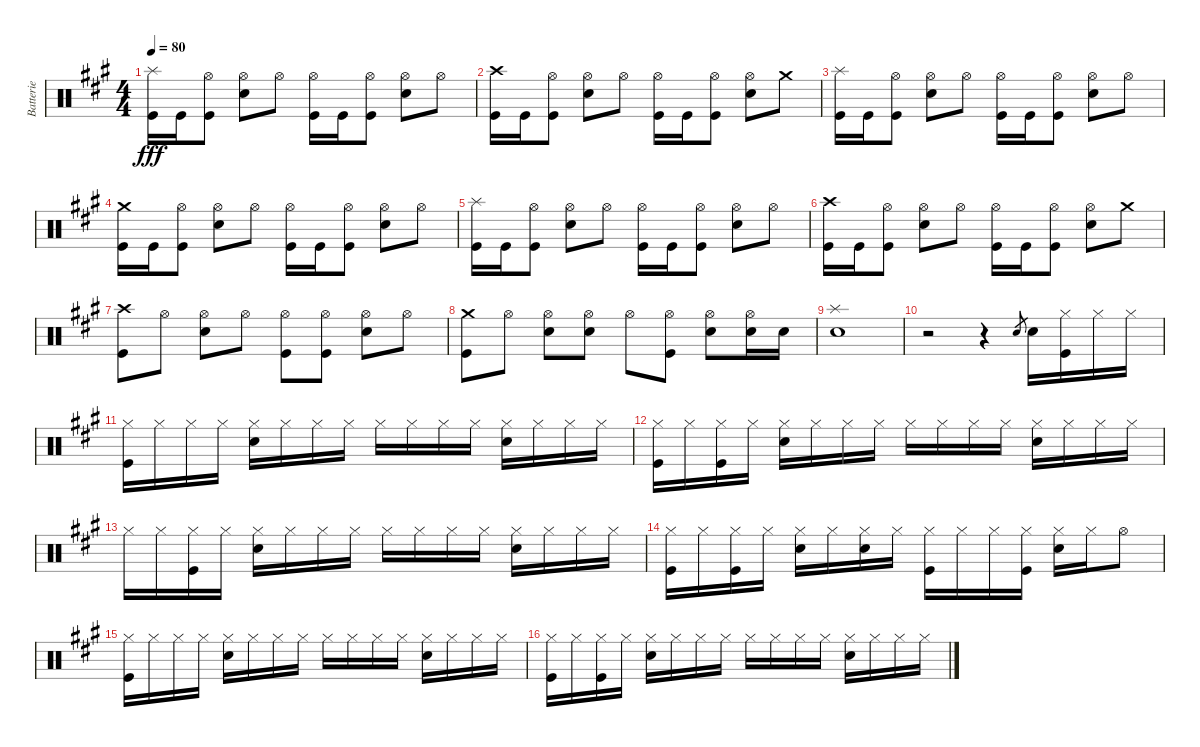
\track ("Batterie" "Batterie") {instrument percussion}
\staff {score}
\articulation defaults
\ts (4 4)
\tempo 80
\clef neutral
\ks a
("Splash (hit)" "Kick (hit)").16{dy fff} "Kick (hit)".16 ("Hi-Hat (open)" "Kick (hit)").8 ("Hi-Hat (open)" "Snare (hit) 2").8 "Hi-Hat (open)".8 ("Hi-Hat (open)" "Kick (hit)").16 "Kick (hit)".16 ("Hi-Hat (open)" "Kick (hit)").8 ("Hi-Hat (open)" "Snare (hit) 2").8 "Hi-Hat (open)".8 |
("Crash high (hit)" "Kick (hit)").16 "Kick (hit)".16 ("Hi-Hat (open)" "Kick (hit)").8 ("Hi-Hat (open)" "Snare (hit) 2").8 "Hi-Hat (open)".8 ("Hi-Hat (open)" "Kick (hit)").16 "Kick (hit)".16 ("Hi-Hat (open)" "Kick (hit)").8 ("Hi-Hat (open)" "Snare (hit) 2").8 "Crash medium (hit)".8 |
("Splash (hit)" "Kick (hit)").16 "Kick (hit)".16 ("Hi-Hat (open)" "Kick (hit)").8 ("Hi-Hat (open)" "Snare (hit) 2").8 "Hi-Hat (open)".8 ("Hi-Hat (open)" "Kick (hit)").16 "Kick (hit)".16 ("Hi-Hat (open)" "Kick (hit)").8 ("Hi-Hat (open)" "Snare (hit) 2").8 "Hi-Hat (open)".8 |
("Crash medium (hit)" "Kick (hit)").16 "Kick (hit)".16 ("Hi-Hat (open)" "Kick (hit)").8 ("Hi-Hat (open)" "Snare (hit) 2").8 "Hi-Hat (open)".8 ("Hi-Hat (open)" "Kick (hit)").16 "Kick (hit)".16 ("Hi-Hat (open)" "Kick (hit)").8 ("Hi-Hat (open)" "Snare (hit) 2").8 "Hi-Hat (open)".8 |
("Splash (hit)" "Kick (hit)").16 "Kick (hit)".16 ("Hi-Hat (open)" "Kick (hit)").8 ("Hi-Hat (open)" "Snare (hit) 2").8 "Hi-Hat (open)".8 ("Hi-Hat (open)" "Kick (hit)").16 "Kick (hit)".16 ("Hi-Hat (open)" "Kick (hit)").8 ("Hi-Hat (open)" "Snare (hit) 2").8 "Hi-Hat (open)".8 |
("Crash high (hit)" "Kick (hit)").16 "Kick (hit)".16 ("Hi-Hat (open)" "Kick (hit)").8 ("Hi-Hat (open)" "Snare (hit) 2").8 "Hi-Hat (open)".8 ("Hi-Hat (open)" "Kick (hit)").16 "Kick (hit)".16 ("Hi-Hat (open)" "Kick (hit)").8 ("Hi-Hat (open)" "Snare (hit) 2").8 "Crash medium (hit)".8 |
("Crash high (hit)" "Kick (hit)").8 "Hi-Hat (open)".8 ("Hi-Hat (open)" "Snare (hit) 2").8 "Hi-Hat (open)".8 ("Hi-Hat (open)" "Kick (hit)").8 ("Hi-Hat (open)" "Kick (hit)").8 ("Hi-Hat (open)" "Snare (hit) 2").8 "Hi-Hat (open)".8 |
("Crash medium (hit)" "Kick (hit)").8 "Hi-Hat (open)".8 ("Hi-Hat (open)" "Snare (hit) 2").8 ("Hi-Hat (open)" "Snare (hit) 2").8 "Hi-Hat (open)".8 ("Hi-Hat (open)" "Kick (hit)").8 ("Hi-Hat (open)" "Snare (hit) 2").8 ("Hi-Hat (open)" "Snare (hit) 2").16 "Snare (hit) 2".16 |
("Splash (hit)" "Snare (hit) 2").1 |
r.2 r.4 "Snare (hit) 2".8{gr} "Snare (hit) 2".16 ("Hi-Hat (closed)" "Kick (hit)").16 "Hi-Hat (closed)".16 "Hi-Hat (closed)".16 |
("Hi-Hat (closed)" "Kick (hit)").16 "Hi-Hat (closed)".16 "Hi-Hat (closed)".16 "Hi-Hat (closed)".16 ("Hi-Hat (closed)" "Snare (hit) 2").16 "Hi-Hat (closed)".16 "Hi-Hat (closed)".16 "Hi-Hat (closed)".16 "Hi-Hat (closed)".16 "Hi-Hat (closed)".16 "Hi-Hat (closed)".16 "Hi-Hat (closed)".16 ("Hi-Hat (closed)" "Snare (hit) 2").16 "Hi-Hat (closed)".16 "Hi-Hat (closed)".16 "Hi-Hat (closed)".16 |
("Hi-Hat (closed)" "Kick (hit)").16 "Hi-Hat (closed)".16 ("Hi-Hat (closed)" "Kick (hit)").16 "Hi-Hat (closed)".16 ("Hi-Hat (closed)" "Snare (hit) 2").16 "Hi-Hat (closed)".16 "Hi-Hat (closed)".16 "Hi-Hat (closed)".16 "Hi-Hat (closed)".16 "Hi-Hat (closed)".16 "Hi-Hat (closed)".16 "Hi-Hat (closed)".16 ("Hi-Hat (closed)" "Snare (hit) 2").16 "Hi-Hat (closed)".16 "Hi-Hat (closed)".16 "Hi-Hat (closed)".16 |
"Hi-Hat (closed)".16 "Hi-Hat (closed)".16 ("Hi-Hat (closed)" "Kick (hit)").16 "Hi-Hat (closed)".16 ("Hi-Hat (closed)" "Snare (hit) 2").16 "Hi-Hat (closed)".16 "Hi-Hat (closed)".16 "Hi-Hat (closed)".16 "Hi-Hat (closed)".16 "Hi-Hat (closed)".16 "Hi-Hat (closed)".16 "Hi-Hat (closed)".16 ("Hi-Hat (closed)" "Snare (hit) 2").16 "Hi-Hat (closed)".16 "Hi-Hat (closed)".16 "Hi-Hat (closed)".16 |
("Hi-Hat (closed)" "Kick (hit)").16 "Hi-Hat (closed)".16 ("Hi-Hat (closed)" "Kick (hit)").16 "Hi-Hat (closed)".16 ("Hi-Hat (closed)" "Snare (hit) 2").16 "Hi-Hat (closed)".16 ("Hi-Hat (closed)" "Snare (hit) 2").16 "Hi-Hat (closed)".16 ("Hi-Hat (closed)" "Kick (hit)").16 "Hi-Hat (closed)".16 "Hi-Hat (closed)".16 ("Hi-Hat (closed)" "Kick (hit)").16 ("Hi-Hat (closed)" "Snare (hit) 2").16 "Hi-Hat (closed)".16 "Hi-Hat (open)".8 |
("Hi-Hat (closed)" "Kick (hit)").16 "Hi-Hat (closed)".16 "Hi-Hat (closed)".16 "Hi-Hat (closed)".16 ("Hi-Hat (closed)" "Snare (hit) 2").16 "Hi-Hat (closed)".16 "Hi-Hat (closed)".16 "Hi-Hat (closed)".16 "Hi-Hat (closed)".16 "Hi-Hat (closed)".16 "Hi-Hat (closed)".16 "Hi-Hat (closed)".16 ("Hi-Hat (closed)" "Snare (hit) 2").16 "Hi-Hat (closed)".16 "Hi-Hat (closed)".16 "Hi-Hat (closed)".16 |
("Hi-Hat (closed)" "Kick (hit)").16 "Hi-Hat (closed)".16 ("Hi-Hat (closed)" "Kick (hit)").16 "Hi-Hat (closed)".16 ("Hi-Hat (closed)" "Snare (hit) 2").16 "Hi-Hat (closed)".16 "Hi-Hat (closed)".16 "Hi-Hat (closed)".16 "Hi-Hat (closed)".16 "Hi-Hat (closed)".16 "Hi-Hat (closed)".16 "Hi-Hat (closed)".16 ("Hi-Hat (closed)" "Snare (hit) 2").16 "Hi-Hat (closed)".16 "Hi-Hat (closed)".16 "Hi-Hat (closed)".16
